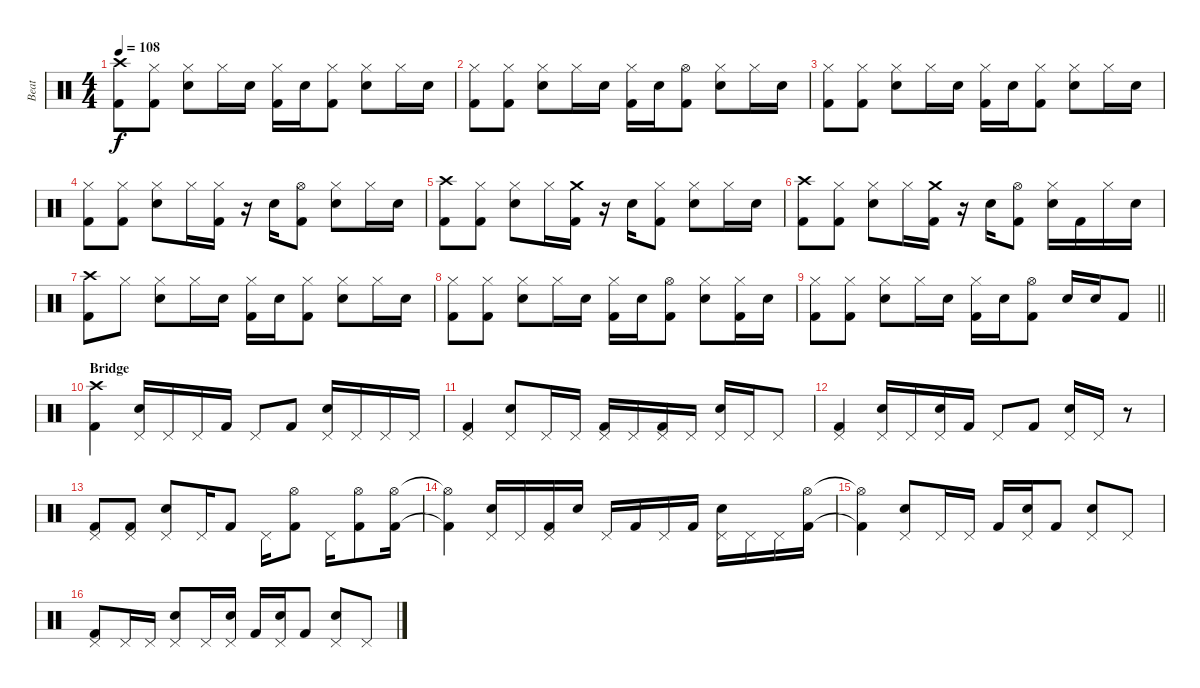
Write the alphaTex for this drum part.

\track ("Beat" "Beat") {instrument percussion}
\staff {score}
\articulation defaults
\ts (4 4)
\tempo 108
\clef neutral
\ks c
("Crash high (hit)" "Kick (hit) 2").8{dy f} ("Hi-Hat (closed)" "Kick (hit) 2").8 ("Hi-Hat (closed)" "Snare (hit) 2").8 "Hi-Hat (closed)".16 "Snare (hit) 2".16 ("Hi-Hat (closed)" "Kick (hit) 2").16 "Snare (hit) 2".16 ("Hi-Hat (closed)" "Kick (hit) 2").8 ("Hi-Hat (closed)" "Snare (hit) 2").8 "Hi-Hat (closed)".16 "Snare (hit) 2".16 |
("Hi-Hat (closed)" "Kick (hit) 2").8 ("Hi-Hat (closed)" "Kick (hit) 2").8 ("Hi-Hat (closed)" "Snare (hit) 2").8 "Hi-Hat (closed)".16 "Snare (hit) 2".16 ("Hi-Hat (closed)" "Kick (hit) 2").16 "Snare (hit) 2".16 ("Hi-Hat (open)" "Kick (hit) 2").8 ("Hi-Hat (closed)" "Snare (hit) 2").8 "Hi-Hat (closed)".16 "Snare (hit) 2".16 |
("Hi-Hat (closed)" "Kick (hit) 2").8 ("Hi-Hat (closed)" "Kick (hit) 2").8 ("Hi-Hat (closed)" "Snare (hit) 2").8 "Hi-Hat (closed)".16 "Snare (hit) 2".16 ("Hi-Hat (closed)" "Kick (hit) 2").16 "Snare (hit) 2".16 ("Hi-Hat (closed)" "Kick (hit) 2").8 ("Hi-Hat (closed)" "Snare (hit) 2").8 "Hi-Hat (closed)".16 "Snare (hit) 2".16 |
("Hi-Hat (closed)" "Kick (hit) 2").8 ("Hi-Hat (closed)" "Kick (hit) 2").8 ("Hi-Hat (closed)" "Snare (hit) 2").8 "Hi-Hat (closed)".16 ("Hi-Hat (closed)" "Kick (hit) 2").16 r.16 "Snare (hit) 2".16 ("Hi-Hat (open)" "Kick (hit) 2").8 ("Hi-Hat (closed)" "Snare (hit) 2").8 "Hi-Hat (closed)".16 "Snare (hit) 2".16 |
("Crash high (hit)" "Kick (hit) 2").8 ("Hi-Hat (closed)" "Kick (hit) 2").8 ("Hi-Hat (closed)" "Snare (hit) 2").8 "Hi-Hat (closed)".16 ("Crash medium (hit)" "Kick (hit) 2").16 r.16 "Snare (hit) 2".16 ("Hi-Hat (closed)" "Kick (hit) 2").8 ("Hi-Hat (closed)" "Snare (hit) 2").8 "Hi-Hat (closed)".16 "Snare (hit) 2".16 |
("Crash high (hit)" "Kick (hit) 2").8 ("Hi-Hat (closed)" "Kick (hit) 2").8 ("Hi-Hat (closed)" "Snare (hit) 2").8 "Hi-Hat (closed)".16 ("Crash medium (hit)" "Kick (hit) 2").16 r.16 "Snare (hit) 2".16 ("Hi-Hat (open)" "Kick (hit) 2").8 ("Hi-Hat (closed)" "Snare (hit) 2").16 "Kick (hit) 2".16 "Hi-Hat (closed)".16 "Snare (hit) 2".16 |
("Crash high (hit)" "Kick (hit) 2").8 "Hi-Hat (closed)".8 ("Hi-Hat (closed)" "Snare (hit) 2").8 "Hi-Hat (closed)".16 "Snare (hit) 2".16 ("Hi-Hat (closed)" "Kick (hit) 2").16 "Snare (hit) 2".16 ("Hi-Hat (closed)" "Kick (hit) 2").8 ("Hi-Hat (closed)" "Snare (hit) 2").8 "Hi-Hat (closed)".16 "Snare (hit) 2".16 |
("Hi-Hat (closed)" "Kick (hit) 2").8 ("Hi-Hat (closed)" "Kick (hit) 2").8 ("Hi-Hat (closed)" "Snare (hit) 2").8 "Hi-Hat (closed)".16 "Snare (hit) 2".16 ("Hi-Hat (closed)" "Kick (hit) 2").16 "Snare (hit) 2".16 ("Hi-Hat (open)" "Kick (hit) 2").8 ("Hi-Hat (closed)" "Snare (hit) 2").8 ("Hi-Hat (closed)" "Kick (hit) 2").16 "Snare (hit) 2".16 |
\barLineRight lightlight
("Hi-Hat (closed)" "Kick (hit) 2").8 ("Hi-Hat (closed)" "Kick (hit) 2").8 ("Hi-Hat (closed)" "Snare (hit) 2").8 "Hi-Hat (closed)".16 "Snare (hit) 2".16 ("Hi-Hat (closed)" "Kick (hit) 2").16 "Snare (hit) 2".16 ("Hi-Hat (open)" "Kick (hit) 2").8 "Snare (hit) 2".16 "Snare (hit) 2".16 "Kick (hit) 2".8 |
\section ("" "Bridge")
("Crash high (hit)" "Kick (hit) 2").4 ("Pedal Hi-Hat (hit)" "Snare (hit) 2").16 "Pedal Hi-Hat (hit)".16 "Pedal Hi-Hat (hit)".16 "Kick (hit) 2".16 "Pedal Hi-Hat (hit)".8 "Kick (hit) 2".8 ("Pedal Hi-Hat (hit)" "Snare (hit) 2").16 "Pedal Hi-Hat (hit)".16 "Pedal Hi-Hat (hit)".16 "Pedal Hi-Hat (hit)".16 |
("Pedal Hi-Hat (hit)" "Kick (hit) 2").4 ("Pedal Hi-Hat (hit)" "Snare (hit) 2").8 "Pedal Hi-Hat (hit)".16 "Pedal Hi-Hat (hit)".16 ("Pedal Hi-Hat (hit)" "Kick (hit) 2").16 "Pedal Hi-Hat (hit)".16 ("Pedal Hi-Hat (hit)" "Kick (hit) 2").16 "Pedal Hi-Hat (hit)".16 ("Pedal Hi-Hat (hit)" "Snare (hit) 2").16 "Pedal Hi-Hat (hit)".16 "Pedal Hi-Hat (hit)".8 |
("Pedal Hi-Hat (hit)" "Kick (hit) 2").4 ("Pedal Hi-Hat (hit)" "Snare (hit) 2").16 "Pedal Hi-Hat (hit)".16 ("Pedal Hi-Hat (hit)" "Snare (hit) 2").16 "Kick (hit) 2".16 "Pedal Hi-Hat (hit)".8 "Kick (hit) 2".8 ("Pedal Hi-Hat (hit)" "Snare (hit) 2").16 "Pedal Hi-Hat (hit)".16 r.8 |
("Pedal Hi-Hat (hit)" "Kick (hit) 2").8 ("Pedal Hi-Hat (hit)" "Kick (hit) 2").8 ("Pedal Hi-Hat (hit)" "Snare (hit) 2").8 "Pedal Hi-Hat (hit)".16 "Kick (hit) 2".8 "Pedal Hi-Hat (hit)".16 ("Hi-Hat (open)" "Kick (hit) 2").8 "Pedal Hi-Hat (hit)".16 ("Hi-Hat (open)" "Kick (hit) 2").8 ("Hi-Hat (open)" "Kick (hit) 2").16 |
("Hi-Hat (open)"{t} "Kick (hit) 2"{t}).4 ("Pedal Hi-Hat (hit)" "Snare (hit) 2").16 "Pedal Hi-Hat (hit)".16 ("Pedal Hi-Hat (hit)" "Kick (hit) 2").16 "Snare (hit) 2".16 "Pedal Hi-Hat (hit)".16 "Kick (hit) 2".16 "Pedal Hi-Hat (hit)".16 "Kick (hit) 2".16 ("Pedal Hi-Hat (hit)" "Snare (hit) 2").16 "Pedal Hi-Hat (hit)".16 "Pedal Hi-Hat (hit)".16 ("Hi-Hat (open)" "Kick (hit) 2").16 |
("Hi-Hat (open)"{t} "Kick (hit) 2"{t}).4 ("Pedal Hi-Hat (hit)" "Snare (hit) 2").8 "Pedal Hi-Hat (hit)".16 "Pedal Hi-Hat (hit)".16 "Kick (hit) 2".16 ("Pedal Hi-Hat (hit)" "Snare (hit) 2").16 "Kick (hit) 2".8 ("Pedal Hi-Hat (hit)" "Snare (hit) 2").8 "Pedal Hi-Hat (hit)".8 |
("Pedal Hi-Hat (hit)" "Kick (hit) 2").8 "Pedal Hi-Hat (hit)".16 "Pedal Hi-Hat (hit)".16 ("Pedal Hi-Hat (hit)" "Snare (hit) 2").8 "Pedal Hi-Hat (hit)".16 ("Pedal Hi-Hat (hit)" "Snare (hit) 2").16 "Kick (hit) 2".16 ("Pedal Hi-Hat (hit)" "Snare (hit) 2").16 "Kick (hit) 2".8 ("Pedal Hi-Hat (hit)" "Snare (hit) 2").8 "Pedal Hi-Hat (hit)".8
